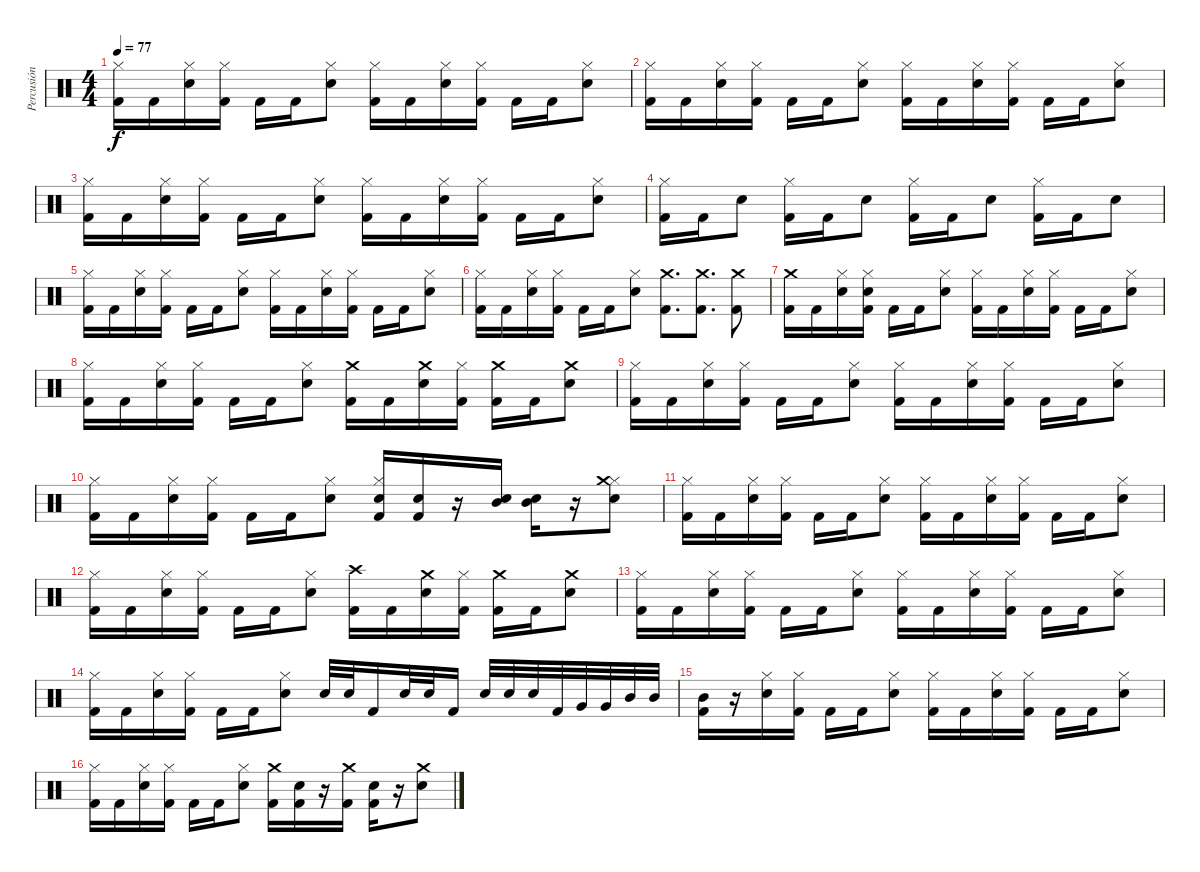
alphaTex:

\track ("Percusión" "Percusión") {instrument percussion}
\staff {score}
\articulation defaults
\ts (4 4)
\tempo 77
\clef neutral
\ks c
("Kick (hit) 2" "Hi-Hat (closed)").16{dy f} "Kick (hit) 2".16 ("Electric Snare (hit)" "Hi-Hat (closed)").16 ("Kick (hit) 2" "Hi-Hat (closed)").16 "Kick (hit) 2".16 "Kick (hit) 2".16 ("Electric Snare (hit)" "Hi-Hat (closed)").8 ("Kick (hit) 2" "Hi-Hat (closed)").16 "Kick (hit) 2".16 ("Electric Snare (hit)" "Hi-Hat (closed)").16 ("Kick (hit) 2" "Hi-Hat (closed)").16 "Kick (hit) 2".16 "Kick (hit) 2".16 ("Electric Snare (hit)" "Hi-Hat (closed)").8 |
("Kick (hit) 2" "Hi-Hat (closed)").16 "Kick (hit) 2".16 ("Electric Snare (hit)" "Hi-Hat (closed)").16 ("Kick (hit) 2" "Hi-Hat (closed)").16 "Kick (hit) 2".16 "Kick (hit) 2".16 ("Electric Snare (hit)" "Hi-Hat (closed)").8 ("Kick (hit) 2" "Hi-Hat (closed)").16 "Kick (hit) 2".16 ("Electric Snare (hit)" "Hi-Hat (closed)").16 ("Kick (hit) 2" "Hi-Hat (closed)").16 "Kick (hit) 2".16 "Kick (hit) 2".16 ("Electric Snare (hit)" "Hi-Hat (closed)").8 |
("Kick (hit) 2" "Hi-Hat (closed)").16 "Kick (hit) 2".16 ("Electric Snare (hit)" "Hi-Hat (closed)").16 ("Kick (hit) 2" "Hi-Hat (closed)").16 "Kick (hit) 2".16 "Kick (hit) 2".16 ("Electric Snare (hit)" "Hi-Hat (closed)").8 ("Kick (hit) 2" "Hi-Hat (closed)").16 "Kick (hit) 2".16 ("Electric Snare (hit)" "Hi-Hat (closed)").16 ("Kick (hit) 2" "Hi-Hat (closed)").16 "Kick (hit) 2".16 "Kick (hit) 2".16 ("Electric Snare (hit)" "Hi-Hat (closed)").8 |
("Kick (hit) 2" "Hi-Hat (closed)").16 "Kick (hit) 2".16 "Electric Snare (hit)".8 ("Kick (hit) 2" "Hi-Hat (closed)").16 "Kick (hit) 2".16 "Electric Snare (hit)".8 ("Kick (hit) 2" "Hi-Hat (closed)").16 "Kick (hit) 2".16 "Electric Snare (hit)".8 ("Kick (hit) 2" "Hi-Hat (closed)").16 "Kick (hit) 2".16 "Electric Snare (hit)".8 |
("Kick (hit) 2" "Hi-Hat (closed)").16 "Kick (hit) 2".16 ("Electric Snare (hit)" "Hi-Hat (closed)").16 ("Kick (hit) 2" "Hi-Hat (closed)").16 "Kick (hit) 2".16 "Kick (hit) 2".16 ("Electric Snare (hit)" "Hi-Hat (closed)").8 ("Kick (hit) 2" "Hi-Hat (closed)").16 "Kick (hit) 2".16 ("Electric Snare (hit)" "Hi-Hat (closed)").16 ("Kick (hit) 2" "Hi-Hat (closed)").16 "Kick (hit) 2".16 "Kick (hit) 2".16 ("Electric Snare (hit)" "Hi-Hat (closed)").8 |
("Kick (hit) 2" "Hi-Hat (closed)").16 "Kick (hit) 2".16 ("Electric Snare (hit)" "Hi-Hat (closed)").16 ("Kick (hit) 2" "Hi-Hat (closed)").16 "Kick (hit) 2".16 "Kick (hit) 2".16 ("Electric Snare (hit)" "Hi-Hat (closed)").8 ("Kick (hit) 2" "Crash medium (hit)").8{d} ("Kick (hit) 2" "Crash medium (hit)").8{d} ("Kick (hit) 2" "Crash medium (hit)").8 |
("Kick (hit) 2" "Crash medium (hit)").16 "Kick (hit) 2".16 ("Electric Snare (hit)" "Hi-Hat (closed)").16 ("Kick (hit) 2" "Hi-Hat (closed)" "Snare (hit)").16 "Kick (hit) 2".16 "Kick (hit) 2".16 ("Electric Snare (hit)" "Hi-Hat (closed)").8 ("Kick (hit) 2" "Hi-Hat (closed)").16 "Kick (hit) 2".16 ("Electric Snare (hit)" "Hi-Hat (closed)").16 ("Kick (hit) 2" "Hi-Hat (closed)").16 "Kick (hit) 2".16 "Kick (hit) 2".16 ("Electric Snare (hit)" "Hi-Hat (closed)").8 |
("Kick (hit) 2" "Hi-Hat (closed)").16 "Kick (hit) 2".16 ("Electric Snare (hit)" "Hi-Hat (closed)").16 ("Kick (hit) 2" "Hi-Hat (closed)").16 "Kick (hit) 2".16 "Kick (hit) 2".16 ("Electric Snare (hit)" "Hi-Hat (closed)").8 ("Kick (hit) 2" "Crash medium (hit)").16 "Kick (hit) 2".16 ("Electric Snare (hit)" "Crash medium (hit)").16 ("Kick (hit) 2" "Hi-Hat (closed)").16 ("Kick (hit) 2" "Crash medium (hit)").16 "Kick (hit) 2".16 ("Electric Snare (hit)" "Crash medium (hit)").8 |
("Kick (hit) 2" "Hi-Hat (closed)").16 "Kick (hit) 2".16 ("Electric Snare (hit)" "Hi-Hat (closed)").16 ("Kick (hit) 2" "Hi-Hat (closed)").16 "Kick (hit) 2".16 "Kick (hit) 2".16 ("Electric Snare (hit)" "Hi-Hat (closed)").8 ("Kick (hit) 2" "Hi-Hat (closed)").16 "Kick (hit) 2".16 ("Electric Snare (hit)" "Hi-Hat (closed)").16 ("Kick (hit) 2" "Hi-Hat (closed)").16 "Kick (hit) 2".16 "Kick (hit) 2".16 ("Electric Snare (hit)" "Hi-Hat (closed)").8 |
("Kick (hit) 2" "Hi-Hat (closed)").16 "Kick (hit) 2".16 ("Electric Snare (hit)" "Hi-Hat (closed)").16 ("Kick (hit) 2" "Hi-Hat (closed)").16 "Kick (hit) 2".16 "Kick (hit) 2".16 ("Electric Snare (hit)" "Hi-Hat (closed)").8 ("Kick (hit) 2" "Electric Snare (hit)" "Hi-Hat (closed)").16 ("Kick (hit) 2" "Electric Snare (hit)").16 r.16 ("Electric Snare (hit)" "Mid Tom (hit)").16 ("Electric Snare (hit)" "Mid Tom (hit)").16 r.16 ("Electric Snare (hit)" "Hi-Hat (closed)" "Crash medium (hit)").8 |
("Kick (hit) 2" "Hi-Hat (closed)").16 "Kick (hit) 2".16 ("Electric Snare (hit)" "Hi-Hat (closed)").16 ("Kick (hit) 2" "Hi-Hat (closed)").16 "Kick (hit) 2".16 "Kick (hit) 2".16 ("Electric Snare (hit)" "Hi-Hat (closed)").8 ("Kick (hit) 2" "Hi-Hat (closed)").16 "Kick (hit) 2".16 ("Electric Snare (hit)" "Hi-Hat (closed)").16 ("Kick (hit) 2" "Hi-Hat (closed)").16 "Kick (hit) 2".16 "Kick (hit) 2".16 ("Electric Snare (hit)" "Hi-Hat (closed)").8 |
("Kick (hit) 2" "Hi-Hat (closed)").16 "Kick (hit) 2".16 ("Electric Snare (hit)" "Hi-Hat (closed)").16 ("Kick (hit) 2" "Hi-Hat (closed)").16 "Kick (hit) 2".16 "Kick (hit) 2".16 ("Electric Snare (hit)" "Hi-Hat (closed)").8 ("Kick (hit) 2" "Crash high (hit)").16 "Kick (hit) 2".16 ("Electric Snare (hit)" "Crash medium (hit)").16 ("Kick (hit) 2" "Hi-Hat (closed)").16 ("Kick (hit) 2" "Crash medium (hit)").16 "Kick (hit) 2".16 ("Electric Snare (hit)" "Crash medium (hit)").8 |
("Kick (hit) 2" "Hi-Hat (closed)").16 "Kick (hit) 2".16 ("Electric Snare (hit)" "Hi-Hat (closed)").16 ("Kick (hit) 2" "Hi-Hat (closed)").16 "Kick (hit) 2".16 "Kick (hit) 2".16 ("Electric Snare (hit)" "Hi-Hat (closed)").8 ("Kick (hit) 2" "Hi-Hat (closed)").16 "Kick (hit) 2".16 ("Electric Snare (hit)" "Hi-Hat (closed)").16 ("Kick (hit) 2" "Hi-Hat (closed)").16 "Kick (hit) 2".16 "Kick (hit) 2".16 ("Electric Snare (hit)" "Hi-Hat (closed)").8 |
("Kick (hit) 2" "Hi-Hat (closed)").16 "Kick (hit) 2".16 ("Electric Snare (hit)" "Hi-Hat (closed)").16 ("Kick (hit) 2" "Hi-Hat (closed)").16 "Kick (hit) 2".16 "Kick (hit) 2".16 ("Electric Snare (hit)" "Hi-Hat (closed)").8 "Electric Snare (hit)".32 "Electric Snare (hit)".32 "Kick (hit) 2".16 "Electric Snare (hit)".32 "Electric Snare (hit)".32 "Kick (hit) 2".16 "Electric Snare (hit)".32 "Electric Snare (hit)".32 "Electric Snare (hit)".32 "Kick (hit) 2".32 "Very Low Tom (hit)".32 "Very Low Tom (hit)".32 "Mid Tom (hit)".32 "Mid Tom (hit)".32 |
("Kick (hit) 2" "Mid Tom (hit)").16 r.16 ("Electric Snare (hit)" "Hi-Hat (closed)").16 ("Kick (hit) 2" "Hi-Hat (closed)").16 "Kick (hit) 2".16 "Kick (hit) 2".16 ("Electric Snare (hit)" "Hi-Hat (closed)").8 ("Kick (hit) 2" "Hi-Hat (closed)").16 "Kick (hit) 2".16 ("Electric Snare (hit)" "Hi-Hat (closed)").16 ("Kick (hit) 2" "Hi-Hat (closed)").16 "Kick (hit) 2".16 "Kick (hit) 2".16 ("Electric Snare (hit)" "Hi-Hat (closed)").8 |
("Kick (hit) 2" "Hi-Hat (closed)").16 "Kick (hit) 2".16 ("Electric Snare (hit)" "Hi-Hat (closed)").16 ("Kick (hit) 2" "Hi-Hat (closed)").16 "Kick (hit) 2".16 "Kick (hit) 2".16 ("Electric Snare (hit)" "Hi-Hat (closed)").8 ("Kick (hit) 2" "Crash medium (hit)").16 ("Kick (hit) 2" "Electric Snare (hit)").16 r.16 ("Kick (hit) 2" "Crash medium (hit)").16 ("Kick (hit) 2" "Electric Snare (hit)").16 r.16 ("Electric Snare (hit)" "Crash medium (hit)").8
